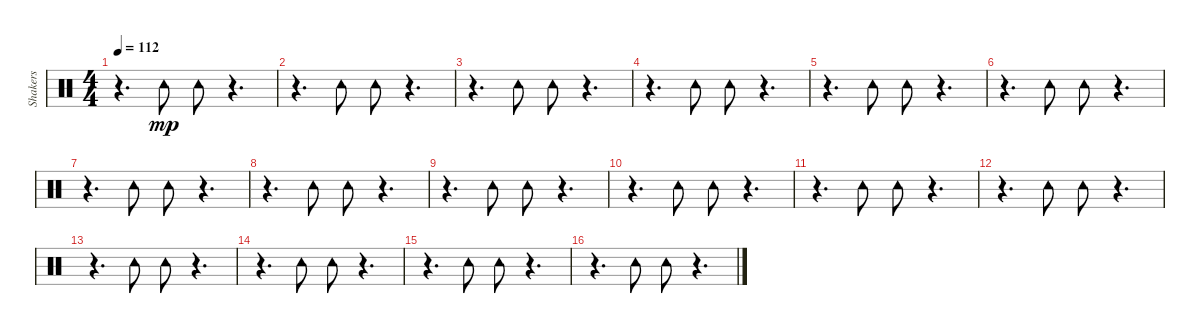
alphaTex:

\track ("Shakers" "Shakers") {instrument percussion}
\staff {score}
\articulation defaults
\ts (4 4)
\tempo 112
\clef neutral
\ks c
r.4{d dy mp} "Tambourine (hit)".8 "Tambourine (hit)".8 r.4{d} |
r.4{d} "Tambourine (hit)".8 "Tambourine (hit)".8 r.4{d} |
r.4{d} "Tambourine (hit)".8 "Tambourine (hit)".8 r.4{d} |
r.4{d} "Tambourine (hit)".8 "Tambourine (hit)".8 r.4{d} |
r.4{d} "Tambourine (hit)".8 "Tambourine (hit)".8 r.4{d} |
r.4{d} "Tambourine (hit)".8 "Tambourine (hit)".8 r.4{d} |
r.4{d} "Tambourine (hit)".8 "Tambourine (hit)".8 r.4{d} |
r.4{d} "Tambourine (hit)".8 "Tambourine (hit)".8 r.4{d} |
r.4{d} "Tambourine (hit)".8 "Tambourine (hit)".8 r.4{d} |
r.4{d} "Tambourine (hit)".8 "Tambourine (hit)".8 r.4{d} |
r.4{d} "Tambourine (hit)".8 "Tambourine (hit)".8 r.4{d} |
r.4{d} "Tambourine (hit)".8 "Tambourine (hit)".8 r.4{d} |
r.4{d} "Tambourine (hit)".8 "Tambourine (hit)".8 r.4{d} |
r.4{d} "Tambourine (hit)".8 "Tambourine (hit)".8 r.4{d} |
r.4{d} "Tambourine (hit)".8 "Tambourine (hit)".8 r.4{d} |
r.4{d} "Tambourine (hit)".8 "Tambourine (hit)".8 r.4{d}
